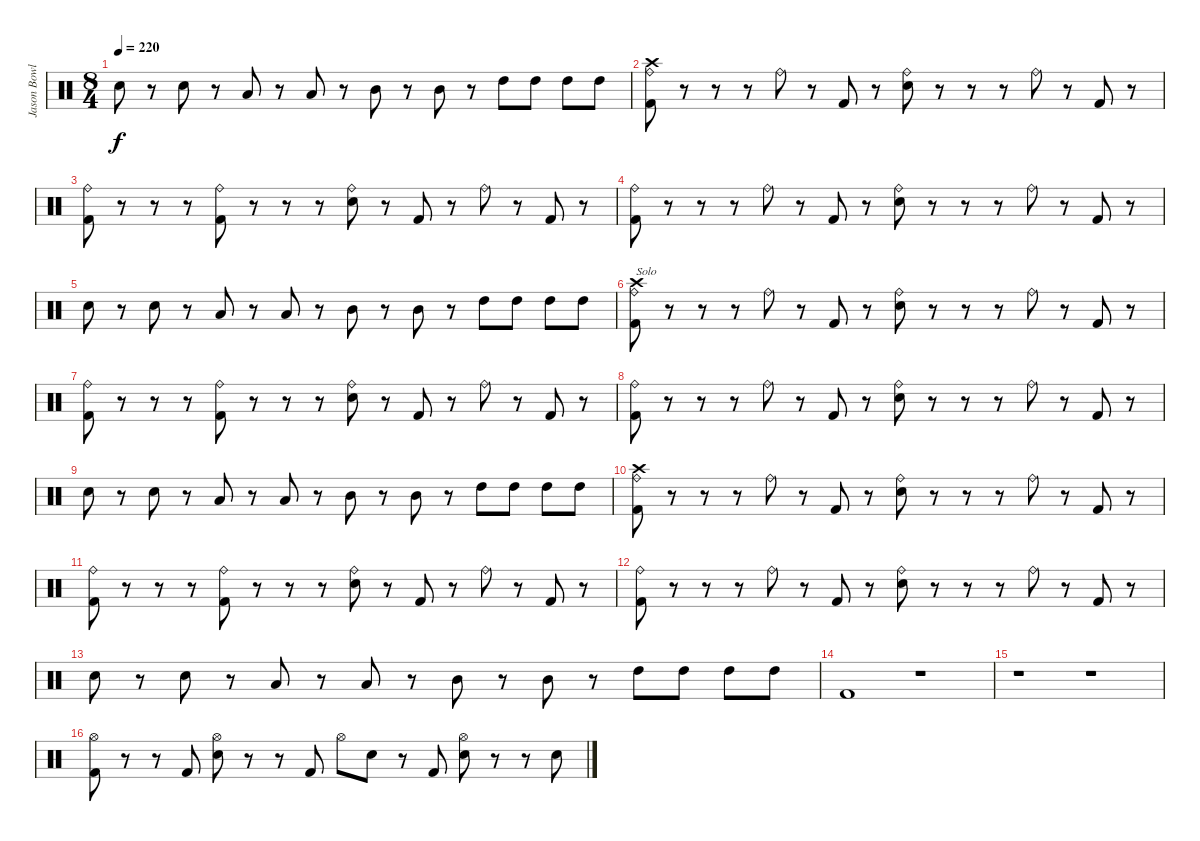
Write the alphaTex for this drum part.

\track ("Jason Bowld" "Jason Bowl") {instrument percussion}
\staff {score}
\articulation defaults
\ts (8 4)
\tempo 220
\clef neutral
\ks c "Snare (hit) 2".8{dy f}
r.8 "Snare (hit) 2".8 r.8 "Low Tom (hit)".8 r.8 "Low Tom (hit)".8 r.8 "Mid Tom (hit)".8 r.8 "Mid Tom (hit)".8 r.8 "High Tom (hit)".8 "High Tom (hit)".8 "High Tom (hit)".8 "High Tom (hit)".8 |
("Ride (bell)" "Kick (hit) 2" "Crash high (hit)").8 r.8 r.8 r.8 "Ride (bell)".8 r.8 "Kick (hit) 2".8 r.8 ("Ride (bell)" "Snare (hit) 2").8 r.8 r.8 r.8 "Ride (bell)".8 r.8 "Kick (hit) 2".8 r.8 |
("Ride (bell)" "Kick (hit) 2").8 r.8 r.8 r.8 ("Ride (bell)" "Kick (hit) 2").8 r.8 r.8 r.8 ("Ride (bell)" "Snare (hit) 2").8 r.8 "Kick (hit) 2".8 r.8 "Ride (bell)".8 r.8 "Kick (hit) 2".8 r.8 |
("Ride (bell)" "Kick (hit) 2").8 r.8 r.8 r.8 "Ride (bell)".8 r.8 "Kick (hit) 2".8 r.8 ("Ride (bell)" "Snare (hit) 2").8 r.8 r.8 r.8 "Ride (bell)".8 r.8 "Kick (hit) 2".8 r.8 |
"Snare (hit) 2".8 r.8 "Snare (hit) 2".8 r.8 "Low Tom (hit)".8 r.8 "Low Tom (hit)".8 r.8 "Mid Tom (hit)".8 r.8 "Mid Tom (hit)".8 r.8 "High Tom (hit)".8 "High Tom (hit)".8 "High Tom (hit)".8 "High Tom (hit)".8 |
("Ride (bell)" "Kick (hit) 2" "Crash high (hit)").8{txt "Solo"} r.8 r.8 r.8 "Ride (bell)".8 r.8 "Kick (hit) 2".8 r.8 ("Ride (bell)" "Snare (hit) 2").8 r.8 r.8 r.8 "Ride (bell)".8 r.8 "Kick (hit) 2".8 r.8 |
("Ride (bell)" "Kick (hit) 2").8 r.8 r.8 r.8 ("Ride (bell)" "Kick (hit) 2").8 r.8 r.8 r.8 ("Ride (bell)" "Snare (hit) 2").8 r.8 "Kick (hit) 2".8 r.8 "Ride (bell)".8 r.8 "Kick (hit) 2".8 r.8 |
("Ride (bell)" "Kick (hit) 2").8 r.8 r.8 r.8 "Ride (bell)".8 r.8 "Kick (hit) 2".8 r.8 ("Ride (bell)" "Snare (hit) 2").8 r.8 r.8 r.8 "Ride (bell)".8 r.8 "Kick (hit) 2".8 r.8 |
"Snare (hit) 2".8 r.8 "Snare (hit) 2".8 r.8 "Low Tom (hit)".8 r.8 "Low Tom (hit)".8 r.8 "Mid Tom (hit)".8 r.8 "Mid Tom (hit)".8 r.8 "High Tom (hit)".8 "High Tom (hit)".8 "High Tom (hit)".8 "High Tom (hit)".8 |
("Ride (bell)" "Kick (hit) 2" "Crash high (hit)").8 r.8 r.8 r.8 "Ride (bell)".8 r.8 "Kick (hit) 2".8 r.8 ("Ride (bell)" "Snare (hit) 2").8 r.8 r.8 r.8 "Ride (bell)".8 r.8 "Kick (hit) 2".8 r.8 |
("Ride (bell)" "Kick (hit) 2").8 r.8 r.8 r.8 ("Ride (bell)" "Kick (hit) 2").8 r.8 r.8 r.8 ("Ride (bell)" "Snare (hit) 2").8 r.8 "Kick (hit) 2".8 r.8 "Ride (bell)".8 r.8 "Kick (hit) 2".8 r.8 |
("Ride (bell)" "Kick (hit) 2").8 r.8 r.8 r.8 "Ride (bell)".8 r.8 "Kick (hit) 2".8 r.8 ("Ride (bell)" "Snare (hit) 2").8 r.8 r.8 r.8 "Ride (bell)".8 r.8 "Kick (hit) 2".8 r.8 |
"Snare (hit) 2".8 r.8 "Snare (hit) 2".8 r.8 "Low Tom (hit)".8 r.8 "Low Tom (hit)".8 r.8 "Mid Tom (hit)".8 r.8 "Mid Tom (hit)".8 r.8 "High Tom (hit)".8 "High Tom (hit)".8 "High Tom (hit)".8 "High Tom (hit)".8 |
"Kick (hit) 2".1 r.1 |
r.1 r.1 |
("Hi-Hat (open)" "Kick (hit) 2").8 r.8 r.8 "Kick (hit) 2".8 ("Hi-Hat (open)" "Snare (hit) 2").8 r.8 r.8 "Kick (hit) 2".8 "Hi-Hat (open)".8 "Snare (hit) 2".8 r.8 "Kick (hit) 2".8 ("Hi-Hat (open)" "Snare (hit) 2").8 r.8 r.8 "Snare (hit) 2".8
